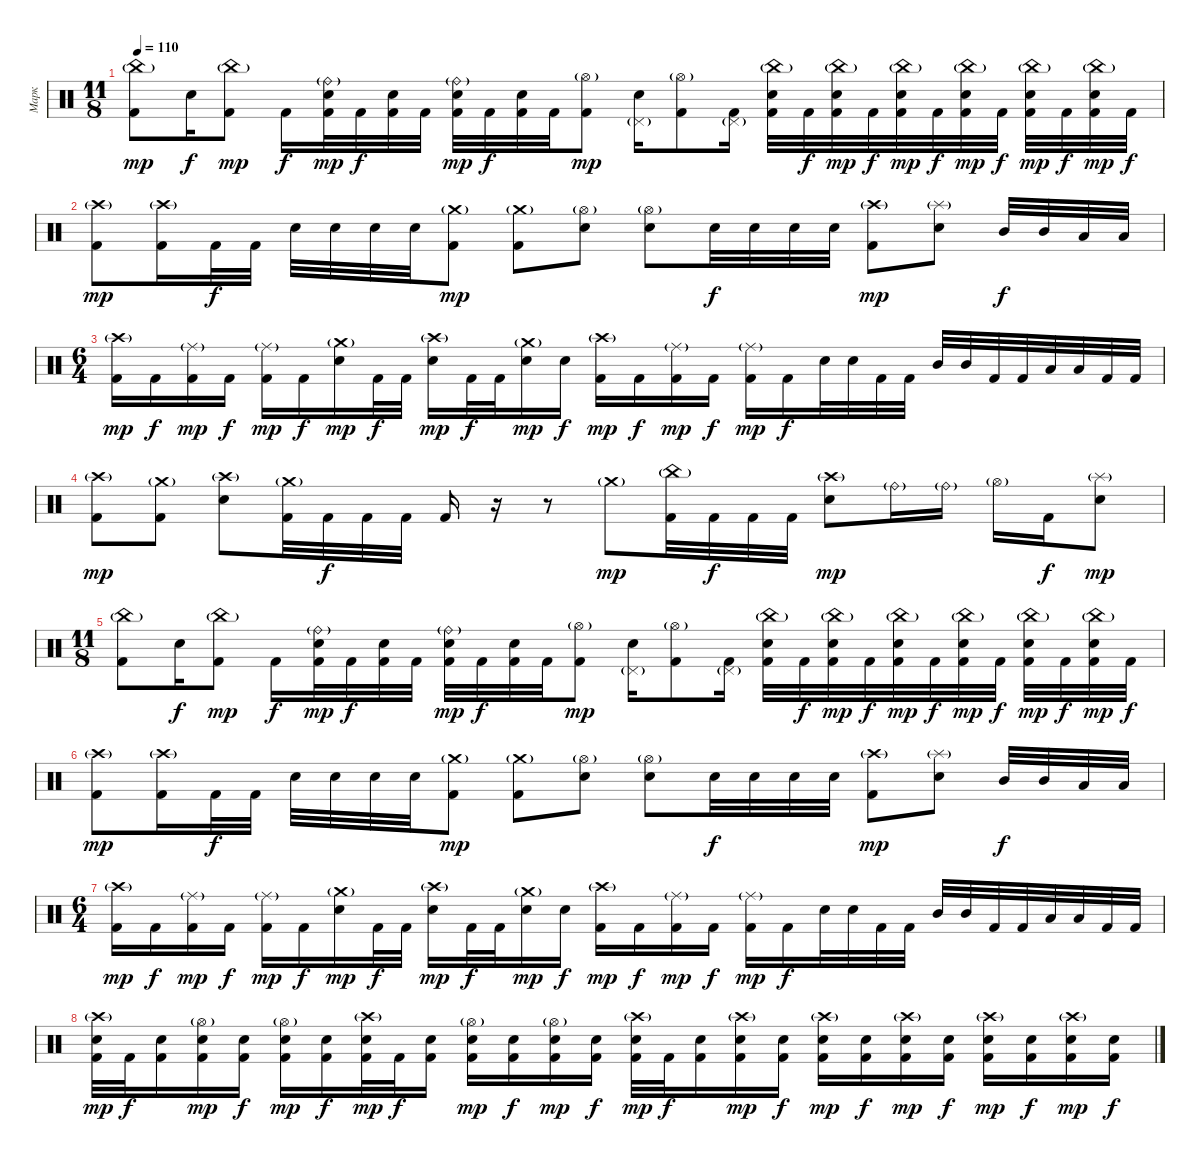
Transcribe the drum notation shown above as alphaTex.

\track ("Марк " "Марк ") {instrument percussion}
\staff {score}
\articulation defaults
\ts (11 8)
\tempo 110
\clef neutral
\ks c
("China (hit)"{g} "Kick (hit) 2").8{dy mp} "Electric Snare (hit)".16{dy f} ("China (hit)"{g} "Kick (hit) 2").8{dy mp} "Kick (hit) 2".16{dy f} ("Ride (bell)"{g} "Electric Snare (hit)" "Kick (hit) 2").32{dy mp} "Kick (hit) 2".32{dy f} ("Electric Snare (hit)" "Kick (hit) 2").32 "Kick (hit) 2".32 ("Ride (bell)"{g} "Electric Snare (hit)" "Kick (hit) 2").32{dy mp} "Kick (hit) 2".32{dy f} ("Electric Snare (hit)" "Kick (hit) 2").32 "Kick (hit) 2".32 ("Hi-Hat (open)"{g} "Kick (hit) 2").8{dy mp} ("Pedal Hi-Hat (hit)"{g} "Electric Snare (hit)").16 ("Hi-Hat (open)"{g} "Kick (hit) 2").8 ("Pedal Hi-Hat (hit)"{g} "Kick (hit) 2").16 ("China (hit)"{g} "Electric Snare (hit)" "Kick (hit) 2").32 "Kick (hit) 2".32{dy f} ("China (hit)"{g} "Electric Snare (hit)" "Kick (hit) 2").32{dy mp} "Kick (hit) 2".32{dy f} ("China (hit)"{g} "Electric Snare (hit)" "Kick (hit) 2").32{dy mp} "Kick (hit) 2".32{dy f} ("China (hit)"{g} "Electric Snare (hit)" "Kick (hit) 2").32{dy mp} "Kick (hit) 2".32{dy f} ("China (hit)"{g} "Electric Snare (hit)" "Kick (hit) 2").32{dy mp} "Kick (hit) 2".32{dy f} ("China (hit)"{g} "Electric Snare (hit)" "Kick (hit) 2").32{dy mp} "Kick (hit) 2".32{dy f} |
("Crash high (hit)"{g} "Kick (hit) 2").8{dy mp} ("Crash high (hit)"{g} "Kick (hit) 2").16 "Kick (hit) 2".32{dy f} "Kick (hit) 2".32 "Electric Snare (hit)".32 "Electric Snare (hit)".32 "Electric Snare (hit)".32 "Electric Snare (hit)".32 ("Crash medium (hit)"{g} "Kick (hit) 2").8{dy mp} ("Crash medium (hit)"{g} "Kick (hit) 2").8 ("Hi-Hat (open)"{g} "Electric Snare (hit)").8 ("Hi-Hat (open)"{g} "Electric Snare (hit)").8 "Electric Snare (hit)".32{dy f} "Electric Snare (hit)".32 "Electric Snare (hit)".32 "Electric Snare (hit)".32 ("Crash high (hit)"{g} "Kick (hit) 2").8{dy mp} ("Splash (hit)"{g} "Electric Snare (hit)").8 "Mid Tom (hit)".32{dy f} "Mid Tom (hit)".32 "Low Tom (hit)".32 "Low Tom (hit)".32 |
\ts (6 4)
("Crash high (hit)"{g} "Kick (hit) 2").16{dy mp} "Kick (hit) 2".16{dy f} ("Ride (middle)"{g} "Kick (hit) 2").16{dy mp} "Kick (hit) 2".16{dy f} ("Ride (middle)"{g} "Kick (hit) 2").16{dy mp} "Kick (hit) 2".16{dy f} ("Crash medium (hit)"{g} "Electric Snare (hit)").16{dy mp} "Kick (hit) 2".32{dy f} "Kick (hit) 2".32 ("Crash high (hit)"{g} "Electric Snare (hit)").16{dy mp} "Kick (hit) 2".32{dy f} "Kick (hit) 2".32 ("Crash medium (hit)"{g} "Electric Snare (hit)").16{dy mp} "Electric Snare (hit)".16{dy f} ("Crash high (hit)"{g} "Kick (hit) 2").16{dy mp} "Kick (hit) 2".16{dy f} ("Ride (middle)"{g} "Kick (hit) 2").16{dy mp} "Kick (hit) 2".16{dy f} ("Ride (middle)"{g} "Kick (hit) 2").16{dy mp} "Kick (hit) 2".16{dy f} "Electric Snare (hit)".32 "Electric Snare (hit)".32 "Kick (hit) 2".32 "Kick (hit) 2".32 "Mid Tom (hit)".32 "Mid Tom (hit)".32 "Kick (hit) 2".32 "Kick (hit) 2".32 "Low Tom (hit)".32 "Low Tom (hit)".32 "Kick (hit) 2".32 "Kick (hit) 2".32 |
("Crash high (hit)"{g} "Kick (hit) 2").8{dy mp} ("Crash medium (hit)"{g} "Kick (hit) 2").8 ("Crash high (hit)"{g} "Electric Snare (hit)").8 ("Crash medium (hit)"{g} "Kick (hit) 2").32 "Kick (hit) 2".32{dy f} "Kick (hit) 2".32 "Kick (hit) 2".32 "Kick (hit) 2".16 r.16 r.8 "Crash medium (hit)"{g}.8{dy mp} ("China (hit)"{g} "Kick (hit) 2").32 "Kick (hit) 2".32{dy f} "Kick (hit) 2".32 "Kick (hit) 2".32 ("Crash high (hit)"{g} "Electric Snare (hit)").8{dy mp} "Ride (bell)"{g}.16 "Ride (bell)"{g}.16 "Hi-Hat (open)"{g}.16 "Kick (hit) 2".16{dy f} ("Splash (hit)"{g} "Electric Snare (hit)").8{dy mp} |
\ts (11 8)
("China (hit)"{g} "Kick (hit) 2").8 "Electric Snare (hit)".16{dy f} ("China (hit)"{g} "Kick (hit) 2").8{dy mp} "Kick (hit) 2".16{dy f} ("Ride (bell)"{g} "Electric Snare (hit)" "Kick (hit) 2").32{dy mp} "Kick (hit) 2".32{dy f} ("Electric Snare (hit)" "Kick (hit) 2").32 "Kick (hit) 2".32 ("Ride (bell)"{g} "Electric Snare (hit)" "Kick (hit) 2").32{dy mp} "Kick (hit) 2".32{dy f} ("Electric Snare (hit)" "Kick (hit) 2").32 "Kick (hit) 2".32 ("Hi-Hat (open)"{g} "Kick (hit) 2").8{dy mp} ("Pedal Hi-Hat (hit)"{g} "Electric Snare (hit)").16 ("Hi-Hat (open)"{g} "Kick (hit) 2").8 ("Pedal Hi-Hat (hit)"{g} "Kick (hit) 2").16 ("China (hit)"{g} "Electric Snare (hit)" "Kick (hit) 2").32 "Kick (hit) 2".32{dy f} ("China (hit)"{g} "Electric Snare (hit)" "Kick (hit) 2").32{dy mp} "Kick (hit) 2".32{dy f} ("China (hit)"{g} "Electric Snare (hit)" "Kick (hit) 2").32{dy mp} "Kick (hit) 2".32{dy f} ("China (hit)"{g} "Electric Snare (hit)" "Kick (hit) 2").32{dy mp} "Kick (hit) 2".32{dy f} ("China (hit)"{g} "Electric Snare (hit)" "Kick (hit) 2").32{dy mp} "Kick (hit) 2".32{dy f} ("China (hit)"{g} "Electric Snare (hit)" "Kick (hit) 2").32{dy mp} "Kick (hit) 2".32{dy f} |
("Crash high (hit)"{g} "Kick (hit) 2").8{dy mp} ("Crash high (hit)"{g} "Kick (hit) 2").16 "Kick (hit) 2".32{dy f} "Kick (hit) 2".32 "Electric Snare (hit)".32 "Electric Snare (hit)".32 "Electric Snare (hit)".32 "Electric Snare (hit)".32 ("Crash medium (hit)"{g} "Kick (hit) 2").8{dy mp} ("Crash medium (hit)"{g} "Kick (hit) 2").8 ("Hi-Hat (open)"{g} "Electric Snare (hit)").8 ("Hi-Hat (open)"{g} "Electric Snare (hit)").8 "Electric Snare (hit)".32{dy f} "Electric Snare (hit)".32 "Electric Snare (hit)".32 "Electric Snare (hit)".32 ("Crash high (hit)"{g} "Kick (hit) 2").8{dy mp} ("Splash (hit)"{g} "Electric Snare (hit)").8 "Mid Tom (hit)".32{dy f} "Mid Tom (hit)".32 "Low Tom (hit)".32 "Low Tom (hit)".32 |
\ts (6 4)
("Crash high (hit)"{g} "Kick (hit) 2").16{dy mp} "Kick (hit) 2".16{dy f} ("Ride (middle)"{g} "Kick (hit) 2").16{dy mp} "Kick (hit) 2".16{dy f} ("Ride (middle)"{g} "Kick (hit) 2").16{dy mp} "Kick (hit) 2".16{dy f} ("Crash medium (hit)"{g} "Electric Snare (hit)").16{dy mp} "Kick (hit) 2".32{dy f} "Kick (hit) 2".32 ("Crash high (hit)"{g} "Electric Snare (hit)").16{dy mp} "Kick (hit) 2".32{dy f} "Kick (hit) 2".32 ("Crash medium (hit)"{g} "Electric Snare (hit)").16{dy mp} "Electric Snare (hit)".16{dy f} ("Crash high (hit)"{g} "Kick (hit) 2").16{dy mp} "Kick (hit) 2".16{dy f} ("Ride (middle)"{g} "Kick (hit) 2").16{dy mp} "Kick (hit) 2".16{dy f} ("Ride (middle)"{g} "Kick (hit) 2").16{dy mp} "Kick (hit) 2".16{dy f} "Electric Snare (hit)".32 "Electric Snare (hit)".32 "Kick (hit) 2".32 "Kick (hit) 2".32 "Mid Tom (hit)".32 "Mid Tom (hit)".32 "Kick (hit) 2".32 "Kick (hit) 2".32 "Low Tom (hit)".32 "Low Tom (hit)".32 "Kick (hit) 2".32 "Kick (hit) 2".32 |
("Crash high (hit)"{g} "Electric Snare (hit)" "Kick (hit) 2").32{dy mp} "Kick (hit) 2".32{dy f} ("Electric Snare (hit)" "Kick (hit) 2").16 ("Hi-Hat (open)"{g} "Electric Snare (hit)" "Kick (hit) 2").16{dy mp} ("Electric Snare (hit)" "Kick (hit) 2").16{dy f} ("Hi-Hat (open)"{g} "Electric Snare (hit)" "Kick (hit) 2").16{dy mp} ("Electric Snare (hit)" "Kick (hit) 2").16{dy f} ("Crash high (hit)"{g} "Electric Snare (hit)" "Kick (hit) 2").32{dy mp} "Kick (hit) 2".32{dy f} ("Electric Snare (hit)" "Kick (hit) 2").16 ("Hi-Hat (open)"{g} "Electric Snare (hit)" "Kick (hit) 2").16{dy mp} ("Electric Snare (hit)" "Kick (hit) 2").16{dy f} ("Hi-Hat (open)"{g} "Electric Snare (hit)" "Kick (hit) 2").16{dy mp} ("Electric Snare (hit)" "Kick (hit) 2").16{dy f} ("Crash high (hit)"{g} "Electric Snare (hit)" "Kick (hit) 2").32{dy mp} "Kick (hit) 2".32{dy f} ("Electric Snare (hit)" "Kick (hit) 2").16 ("Crash high (hit)"{g} "Electric Snare (hit)" "Kick (hit) 2").16{dy mp} ("Electric Snare (hit)" "Kick (hit) 2").16{dy f} ("Crash high (hit)"{g} "Electric Snare (hit)" "Kick (hit) 2").16{dy mp} ("Electric Snare (hit)" "Kick (hit) 2").16{dy f} ("Crash high (hit)"{g} "Electric Snare (hit)" "Kick (hit) 2").16{dy mp} ("Electric Snare (hit)" "Kick (hit) 2").16{dy f} ("Crash high (hit)"{g} "Electric Snare (hit)" "Kick (hit) 2").16{dy mp} ("Electric Snare (hit)" "Kick (hit) 2").16{dy f} ("Crash high (hit)"{g} "Electric Snare (hit)" "Kick (hit) 2").16{dy mp} ("Electric Snare (hit)" "Kick (hit) 2").16{dy f}
